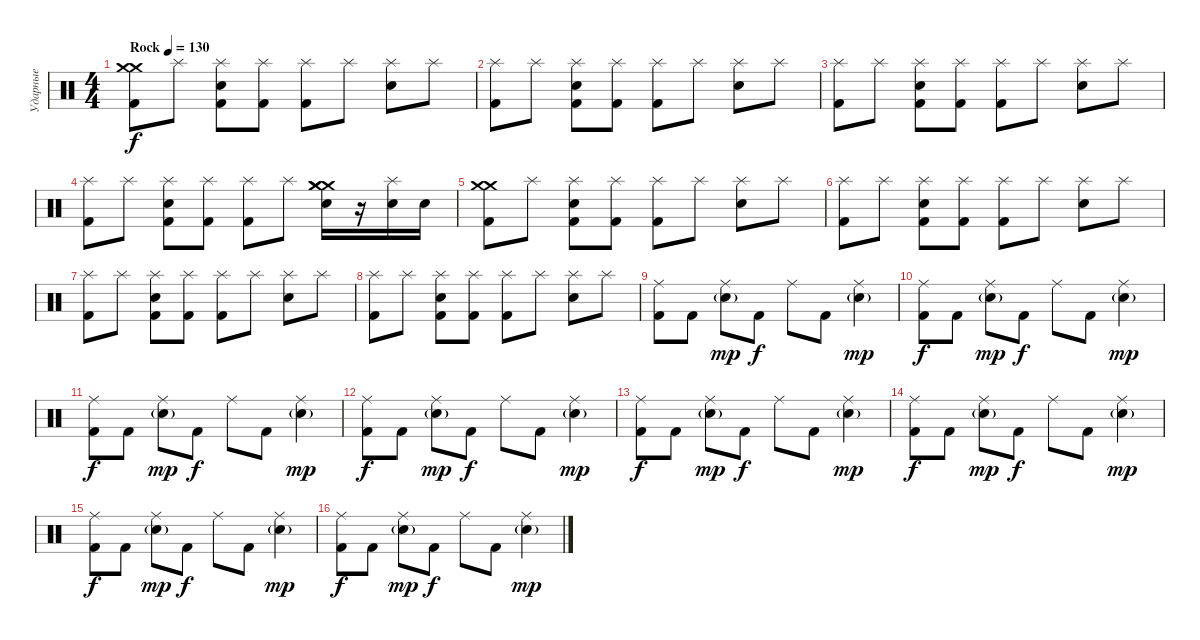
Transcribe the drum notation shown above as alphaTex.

\track ("Ударные" "Ударные") {instrument percussion}
\staff {score}
\articulation defaults
\ts (4 4)
\tempo (130 "Rock")
\clef neutral
\ks c
("Crash medium (hit)" "Crash medium (hit)" "Kick (hit) 2").8{dy f} "Splash (hit)".8 ("Splash (hit)" "Electric Snare (hit)" "Kick (hit) 2").8 ("Splash (hit)" "Kick (hit) 2").8 ("Splash (hit)" "Kick (hit) 2").8 "Splash (hit)".8 ("Splash (hit)" "Electric Snare (hit)").8 "Splash (hit)".8 |
("Splash (hit)" "Kick (hit) 2").8 "Splash (hit)".8 ("Splash (hit)" "Electric Snare (hit)" "Kick (hit) 2").8 ("Splash (hit)" "Kick (hit) 2").8 ("Splash (hit)" "Kick (hit) 2").8 "Splash (hit)".8 ("Splash (hit)" "Electric Snare (hit)").8 "Splash (hit)".8 |
("Splash (hit)" "Kick (hit) 2").8 "Splash (hit)".8 ("Splash (hit)" "Electric Snare (hit)" "Kick (hit) 2").8 ("Splash (hit)" "Kick (hit) 2").8 ("Splash (hit)" "Kick (hit) 2").8 "Splash (hit)".8 ("Splash (hit)" "Electric Snare (hit)").8 "Splash (hit)".8 |
("Splash (hit)" "Kick (hit) 2").8 "Splash (hit)".8 ("Splash (hit)" "Electric Snare (hit)" "Kick (hit) 2").8 ("Splash (hit)" "Kick (hit) 2").8 ("Splash (hit)" "Kick (hit) 2").8 "Splash (hit)".8 ("Crash medium (hit)" "Crash medium (hit)" "Crash medium (hit)" "Electric Snare (hit)").16 r.16 ("Splash (hit)" "Electric Snare (hit)").16 "Electric Snare (hit)".16 |
("Crash medium (hit)" "Crash medium (hit)" "Kick (hit) 2").8 "Splash (hit)".8 ("Splash (hit)" "Electric Snare (hit)" "Kick (hit) 2").8 ("Splash (hit)" "Kick (hit) 2").8 ("Splash (hit)" "Kick (hit) 2").8 "Splash (hit)".8 ("Splash (hit)" "Electric Snare (hit)").8 "Splash (hit)".8 |
("Splash (hit)" "Kick (hit) 2").8 "Splash (hit)".8 ("Splash (hit)" "Electric Snare (hit)" "Kick (hit) 2").8 ("Splash (hit)" "Kick (hit) 2").8 ("Splash (hit)" "Kick (hit) 2").8 "Splash (hit)".8 ("Splash (hit)" "Electric Snare (hit)").8 "Splash (hit)".8 |
("Splash (hit)" "Kick (hit) 2").8 "Splash (hit)".8 ("Splash (hit)" "Electric Snare (hit)" "Kick (hit) 2").8 ("Splash (hit)" "Kick (hit) 2").8 ("Splash (hit)" "Kick (hit) 2").8 "Splash (hit)".8 ("Splash (hit)" "Electric Snare (hit)").8 "Splash (hit)".8 |
("Splash (hit)" "Kick (hit) 2").8 "Splash (hit)".8 ("Splash (hit)" "Electric Snare (hit)" "Kick (hit) 2").8 ("Splash (hit)" "Kick (hit) 2").8 ("Splash (hit)" "Kick (hit) 2").8 "Splash (hit)".8 ("Splash (hit)" "Electric Snare (hit)").8 "Splash (hit)".8 |
("Ride (middle)" "Kick (hit) 2").8 "Kick (hit) 2".8 ("Ride (middle)" "Electric Snare (hit)"{g}).8{dy mp} "Kick (hit) 2".8{dy f} "Ride (middle)".8 "Kick (hit) 2".8 ("Ride (middle)" "Electric Snare (hit)"{g}).4{dy mp} |
("Ride (middle)" "Kick (hit) 2").8{dy f} "Kick (hit) 2".8 ("Ride (middle)" "Electric Snare (hit)"{g}).8{dy mp} "Kick (hit) 2".8{dy f} "Ride (middle)".8 "Kick (hit) 2".8 ("Ride (middle)" "Electric Snare (hit)"{g}).4{dy mp} |
("Ride (middle)" "Kick (hit) 2").8{dy f} "Kick (hit) 2".8 ("Ride (middle)" "Electric Snare (hit)"{g}).8{dy mp} "Kick (hit) 2".8{dy f} "Ride (middle)".8 "Kick (hit) 2".8 ("Ride (middle)" "Electric Snare (hit)"{g}).4{dy mp} |
("Ride (middle)" "Kick (hit) 2").8{dy f} "Kick (hit) 2".8 ("Ride (middle)" "Electric Snare (hit)"{g}).8{dy mp} "Kick (hit) 2".8{dy f} "Ride (middle)".8 "Kick (hit) 2".8 ("Ride (middle)" "Electric Snare (hit)"{g}).4{dy mp} |
("Ride (middle)" "Kick (hit) 2").8{dy f} "Kick (hit) 2".8 ("Ride (middle)" "Electric Snare (hit)"{g}).8{dy mp} "Kick (hit) 2".8{dy f} "Ride (middle)".8 "Kick (hit) 2".8 ("Ride (middle)" "Electric Snare (hit)"{g}).4{dy mp} |
("Ride (middle)" "Kick (hit) 2").8{dy f} "Kick (hit) 2".8 ("Ride (middle)" "Electric Snare (hit)"{g}).8{dy mp} "Kick (hit) 2".8{dy f} "Ride (middle)".8 "Kick (hit) 2".8 ("Ride (middle)" "Electric Snare (hit)"{g}).4{dy mp} |
("Ride (middle)" "Kick (hit) 2").8{dy f} "Kick (hit) 2".8 ("Ride (middle)" "Electric Snare (hit)"{g}).8{dy mp} "Kick (hit) 2".8{dy f} "Ride (middle)".8 "Kick (hit) 2".8 ("Ride (middle)" "Electric Snare (hit)"{g}).4{dy mp} |
("Ride (middle)" "Kick (hit) 2").8{dy f} "Kick (hit) 2".8 ("Ride (middle)" "Electric Snare (hit)"{g}).8{dy mp} "Kick (hit) 2".8{dy f} "Ride (middle)".8 "Kick (hit) 2".8 ("Ride (middle)" "Electric Snare (hit)"{g}).4{dy mp}
